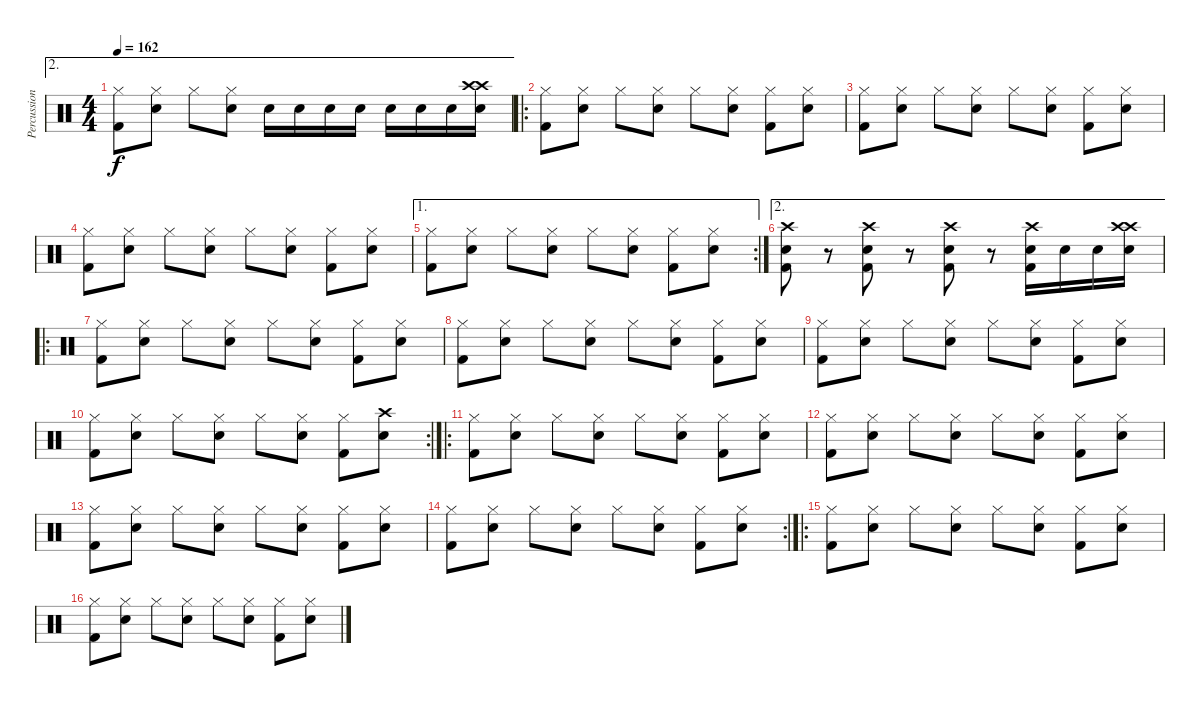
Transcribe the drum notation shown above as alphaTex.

\track ("Percussions" "Percussion") {instrument percussion}
\staff {score}
\articulation defaults
\ae 2
\ts (4 4)
\tempo 162
\clef neutral
\ks c
("Hi-Hat (closed)" "Kick (hit) 2").8{dy f} ("Hi-Hat (closed)" "Electric Snare (hit)").8 "Hi-Hat (closed)".8 ("Hi-Hat (closed)" "Electric Snare (hit)").8 "Electric Snare (hit)".16 "Electric Snare (hit)".16 "Electric Snare (hit)".16 "Electric Snare (hit)".16 "Electric Snare (hit)".16 "Electric Snare (hit)".16 "Electric Snare (hit)".16 ("Crash high (hit)" "Crash high (hit)" "Electric Snare (hit)").16 |
\ro
("Hi-Hat (closed)" "Kick (hit) 2").8 ("Hi-Hat (closed)" "Electric Snare (hit)").8 "Hi-Hat (closed)".8 ("Hi-Hat (closed)" "Electric Snare (hit)").8 "Hi-Hat (closed)".8 ("Hi-Hat (closed)" "Electric Snare (hit)").8 ("Hi-Hat (closed)" "Kick (hit) 2").8 ("Hi-Hat (closed)" "Electric Snare (hit)").8 |
("Hi-Hat (closed)" "Kick (hit) 2").8 ("Hi-Hat (closed)" "Electric Snare (hit)").8 "Hi-Hat (closed)".8 ("Hi-Hat (closed)" "Electric Snare (hit)").8 "Hi-Hat (closed)".8 ("Hi-Hat (closed)" "Electric Snare (hit)").8 ("Hi-Hat (closed)" "Kick (hit) 2").8 ("Hi-Hat (closed)" "Electric Snare (hit)").8 |
("Hi-Hat (closed)" "Kick (hit) 2").8 ("Hi-Hat (closed)" "Electric Snare (hit)").8 "Hi-Hat (closed)".8 ("Hi-Hat (closed)" "Electric Snare (hit)").8 "Hi-Hat (closed)".8 ("Hi-Hat (closed)" "Electric Snare (hit)").8 ("Hi-Hat (closed)" "Kick (hit) 2").8 ("Hi-Hat (closed)" "Electric Snare (hit)").8 |
\ae 1
\rc 2
("Hi-Hat (closed)" "Kick (hit) 2").8 ("Hi-Hat (closed)" "Electric Snare (hit)").8 "Hi-Hat (closed)".8 ("Hi-Hat (closed)" "Electric Snare (hit)").8 "Hi-Hat (closed)".8 ("Hi-Hat (closed)" "Electric Snare (hit)").8 ("Hi-Hat (closed)" "Kick (hit) 2").8 ("Hi-Hat (closed)" "Electric Snare (hit)").8 |
\ae 2
("Crash high (hit)" "Electric Snare (hit)" "Kick (hit) 2").8 r.8 ("Crash high (hit)" "Electric Snare (hit)" "Kick (hit) 2").8 r.8 ("Crash high (hit)" "Electric Snare (hit)" "Kick (hit) 2").8 r.8 ("Crash high (hit)" "Electric Snare (hit)" "Kick (hit) 2").16 "Electric Snare (hit)".16 "Electric Snare (hit)".16 ("Crash high (hit)" "Crash high (hit)" "Electric Snare (hit)").16 |
\ro
("Hi-Hat (closed)" "Kick (hit) 2").8 ("Hi-Hat (closed)" "Electric Snare (hit)").8 "Hi-Hat (closed)".8 ("Hi-Hat (closed)" "Electric Snare (hit)").8 "Hi-Hat (closed)".8 ("Hi-Hat (closed)" "Electric Snare (hit)").8 ("Hi-Hat (closed)" "Kick (hit) 2").8 ("Hi-Hat (closed)" "Electric Snare (hit)").8 |
("Hi-Hat (closed)" "Kick (hit) 2").8 ("Hi-Hat (closed)" "Electric Snare (hit)").8 "Hi-Hat (closed)".8 ("Hi-Hat (closed)" "Electric Snare (hit)").8 "Hi-Hat (closed)".8 ("Hi-Hat (closed)" "Electric Snare (hit)").8 ("Hi-Hat (closed)" "Kick (hit) 2").8 ("Hi-Hat (closed)" "Electric Snare (hit)").8 |
("Hi-Hat (closed)" "Kick (hit) 2").8 ("Hi-Hat (closed)" "Electric Snare (hit)").8 "Hi-Hat (closed)".8 ("Hi-Hat (closed)" "Electric Snare (hit)").8 "Hi-Hat (closed)".8 ("Hi-Hat (closed)" "Electric Snare (hit)").8 ("Hi-Hat (closed)" "Kick (hit) 2").8 ("Hi-Hat (closed)" "Electric Snare (hit)").8 |
\rc 2
("Hi-Hat (closed)" "Kick (hit) 2").8 ("Hi-Hat (closed)" "Electric Snare (hit)").8 "Hi-Hat (closed)".8 ("Hi-Hat (closed)" "Electric Snare (hit)").8 "Hi-Hat (closed)".8 ("Hi-Hat (closed)" "Electric Snare (hit)").8 ("Hi-Hat (closed)" "Kick (hit) 2").8 ("Crash high (hit)" "Electric Snare (hit)").8 |
\ro
("Hi-Hat (closed)" "Kick (hit) 2").8 ("Hi-Hat (closed)" "Electric Snare (hit)").8 "Hi-Hat (closed)".8 ("Hi-Hat (closed)" "Electric Snare (hit)").8 "Hi-Hat (closed)".8 ("Hi-Hat (closed)" "Electric Snare (hit)").8 ("Hi-Hat (closed)" "Kick (hit) 2").8 ("Hi-Hat (closed)" "Electric Snare (hit)").8 |
("Hi-Hat (closed)" "Kick (hit) 2").8 ("Hi-Hat (closed)" "Electric Snare (hit)").8 "Hi-Hat (closed)".8 ("Hi-Hat (closed)" "Electric Snare (hit)").8 "Hi-Hat (closed)".8 ("Hi-Hat (closed)" "Electric Snare (hit)").8 ("Hi-Hat (closed)" "Kick (hit) 2").8 ("Hi-Hat (closed)" "Electric Snare (hit)").8 |
("Hi-Hat (closed)" "Kick (hit) 2").8 ("Hi-Hat (closed)" "Electric Snare (hit)").8 "Hi-Hat (closed)".8 ("Hi-Hat (closed)" "Electric Snare (hit)").8 "Hi-Hat (closed)".8 ("Hi-Hat (closed)" "Electric Snare (hit)").8 ("Hi-Hat (closed)" "Kick (hit) 2").8 ("Hi-Hat (closed)" "Electric Snare (hit)").8 |
\rc 2
("Hi-Hat (closed)" "Kick (hit) 2").8 ("Hi-Hat (closed)" "Electric Snare (hit)").8 "Hi-Hat (closed)".8 ("Hi-Hat (closed)" "Electric Snare (hit)").8 "Hi-Hat (closed)".8 ("Hi-Hat (closed)" "Electric Snare (hit)").8 ("Hi-Hat (closed)" "Kick (hit) 2").8 ("Hi-Hat (closed)" "Electric Snare (hit)").8 |
\ro
("Hi-Hat (closed)" "Kick (hit) 2").8 ("Hi-Hat (closed)" "Electric Snare (hit)").8 "Hi-Hat (closed)".8 ("Hi-Hat (closed)" "Electric Snare (hit)").8 "Hi-Hat (closed)".8 ("Hi-Hat (closed)" "Electric Snare (hit)").8 ("Hi-Hat (closed)" "Kick (hit) 2").8 ("Hi-Hat (closed)" "Electric Snare (hit)").8 |
("Hi-Hat (closed)" "Kick (hit) 2").8 ("Hi-Hat (closed)" "Electric Snare (hit)").8 "Hi-Hat (closed)".8 ("Hi-Hat (closed)" "Electric Snare (hit)").8 "Hi-Hat (closed)".8 ("Hi-Hat (closed)" "Electric Snare (hit)").8 ("Hi-Hat (closed)" "Kick (hit) 2").8 ("Hi-Hat (closed)" "Electric Snare (hit)").8
